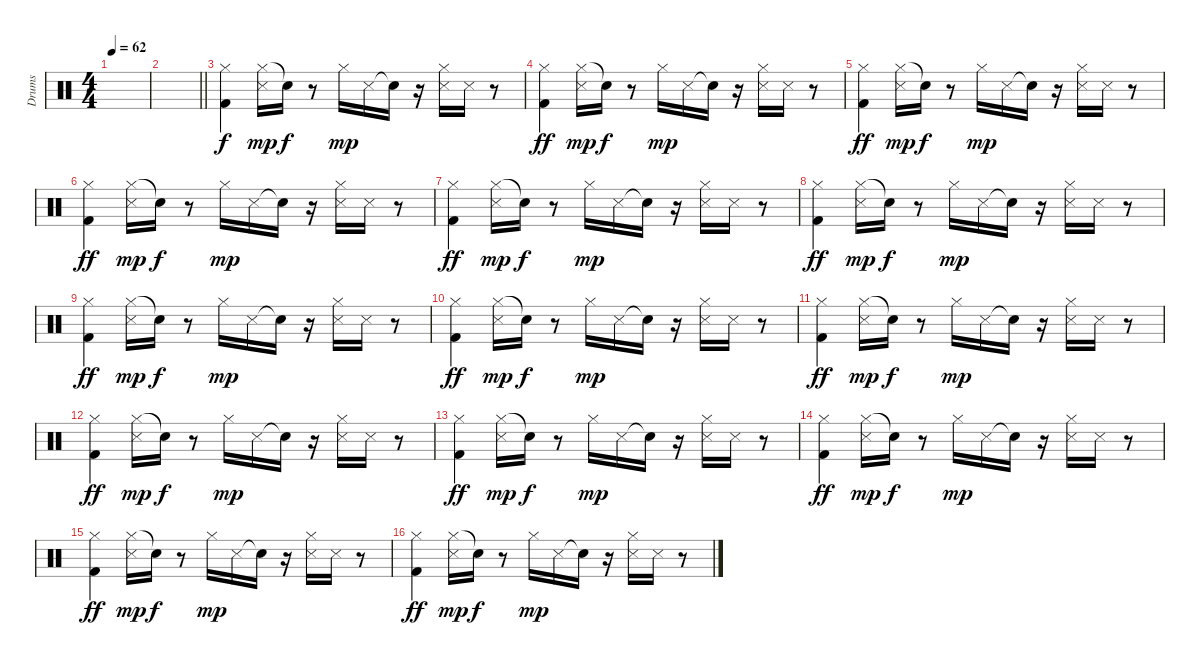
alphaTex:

\track ("Drums" "Drums") {instrument percussion}
\staff {score}
\articulation defaults
\ts (4 4)
\tempo 62
\clef neutral
\ks c
|
\barLineRight lightlight
|
\section ("" "")
("Hi-Hat (closed)" "Kick (hit) 2").4 ("Hi-Hat (closed)" "Snare (side stick) 3").16{dy mp} "Snare (hit)"{t}.16{dy f} r.8 "Hi-Hat (closed)".16{dy mp} "Snare (side stick) 3".16 "Snare (hit)"{t}.16 r.16 ("Hi-Hat (closed)" "Snare (side stick) 3").16 "Snare (side stick) 3".16 r.8 |
("Hi-Hat (closed)" "Kick (hit) 2").4{dy ff} ("Hi-Hat (closed)" "Snare (side stick) 3").16{dy mp} "Snare (hit)"{t}.16{dy f} r.8 "Hi-Hat (closed)".16{dy mp} "Snare (side stick) 3".16 "Snare (hit)"{t}.16 r.16 ("Hi-Hat (closed)" "Snare (side stick) 3").16 "Snare (side stick) 3".16 r.8 |
("Hi-Hat (closed)" "Kick (hit) 2").4{dy ff} ("Hi-Hat (closed)" "Snare (side stick) 3").16{dy mp} "Snare (hit)"{t}.16{dy f} r.8 "Hi-Hat (closed)".16{dy mp} "Snare (side stick) 3".16 "Snare (hit)"{t}.16 r.16 ("Hi-Hat (closed)" "Snare (side stick) 3").16 "Snare (side stick) 3".16 r.8 |
("Hi-Hat (closed)" "Kick (hit) 2").4{dy ff} ("Hi-Hat (closed)" "Snare (side stick) 3").16{dy mp} "Snare (hit)"{t}.16{dy f} r.8 "Hi-Hat (closed)".16{dy mp} "Snare (side stick) 3".16 "Snare (hit)"{t}.16 r.16 ("Hi-Hat (closed)" "Snare (side stick) 3").16 "Snare (side stick) 3".16 r.8 |
("Hi-Hat (closed)" "Kick (hit) 2").4{dy ff} ("Hi-Hat (closed)" "Snare (side stick) 3").16{dy mp} "Snare (hit)"{t}.16{dy f} r.8 "Hi-Hat (closed)".16{dy mp} "Snare (side stick) 3".16 "Snare (hit)"{t}.16 r.16 ("Hi-Hat (closed)" "Snare (side stick) 3").16 "Snare (side stick) 3".16 r.8 |
("Hi-Hat (closed)" "Kick (hit) 2").4{dy ff} ("Hi-Hat (closed)" "Snare (side stick) 3").16{dy mp} "Snare (hit)"{t}.16{dy f} r.8 "Hi-Hat (closed)".16{dy mp} "Snare (side stick) 3".16 "Snare (hit)"{t}.16 r.16 ("Hi-Hat (closed)" "Snare (side stick) 3").16 "Snare (side stick) 3".16 r.8 |
("Hi-Hat (closed)" "Kick (hit) 2").4{dy ff} ("Hi-Hat (closed)" "Snare (side stick) 3").16{dy mp} "Snare (hit)"{t}.16{dy f} r.8 "Hi-Hat (closed)".16{dy mp} "Snare (side stick) 3".16 "Snare (hit)"{t}.16 r.16 ("Hi-Hat (closed)" "Snare (side stick) 3").16 "Snare (side stick) 3".16 r.8 |
("Hi-Hat (closed)" "Kick (hit) 2").4{dy ff} ("Hi-Hat (closed)" "Snare (side stick) 3").16{dy mp} "Snare (hit)"{t}.16{dy f} r.8 "Hi-Hat (closed)".16{dy mp} "Snare (side stick) 3".16 "Snare (hit)"{t}.16 r.16 ("Hi-Hat (closed)" "Snare (side stick) 3").16 "Snare (side stick) 3".16 r.8 |
("Hi-Hat (closed)" "Kick (hit) 2").4{dy ff} ("Hi-Hat (closed)" "Snare (side stick) 3").16{dy mp} "Snare (hit)"{t}.16{dy f} r.8 "Hi-Hat (closed)".16{dy mp} "Snare (side stick) 3".16 "Snare (hit)"{t}.16 r.16 ("Hi-Hat (closed)" "Snare (side stick) 3").16 "Snare (side stick) 3".16 r.8 |
("Hi-Hat (closed)" "Kick (hit) 2").4{dy ff} ("Hi-Hat (closed)" "Snare (side stick) 3").16{dy mp} "Snare (hit)"{t}.16{dy f} r.8 "Hi-Hat (closed)".16{dy mp} "Snare (side stick) 3".16 "Snare (hit)"{t}.16 r.16 ("Hi-Hat (closed)" "Snare (side stick) 3").16 "Snare (side stick) 3".16 r.8 |
("Hi-Hat (closed)" "Kick (hit) 2").4{dy ff} ("Hi-Hat (closed)" "Snare (side stick) 3").16{dy mp} "Snare (hit)"{t}.16{dy f} r.8 "Hi-Hat (closed)".16{dy mp} "Snare (side stick) 3".16 "Snare (hit)"{t}.16 r.16 ("Hi-Hat (closed)" "Snare (side stick) 3").16 "Snare (side stick) 3".16 r.8 |
("Hi-Hat (closed)" "Kick (hit) 2").4{dy ff} ("Hi-Hat (closed)" "Snare (side stick) 3").16{dy mp} "Snare (hit)"{t}.16{dy f} r.8 "Hi-Hat (closed)".16{dy mp} "Snare (side stick) 3".16 "Snare (hit)"{t}.16 r.16 ("Hi-Hat (closed)" "Snare (side stick) 3").16 "Snare (side stick) 3".16 r.8 |
("Hi-Hat (closed)" "Kick (hit) 2").4{dy ff} ("Hi-Hat (closed)" "Snare (side stick) 3").16{dy mp} "Snare (hit)"{t}.16{dy f} r.8 "Hi-Hat (closed)".16{dy mp} "Snare (side stick) 3".16 "Snare (hit)"{t}.16 r.16 ("Hi-Hat (closed)" "Snare (side stick) 3").16 "Snare (side stick) 3".16 r.8 |
("Hi-Hat (closed)" "Kick (hit) 2").4{dy ff} ("Hi-Hat (closed)" "Snare (side stick) 3").16{dy mp} "Snare (hit)"{t}.16{dy f} r.8 "Hi-Hat (closed)".16{dy mp} "Snare (side stick) 3".16 "Snare (hit)"{t}.16 r.16 ("Hi-Hat (closed)" "Snare (side stick) 3").16 "Snare (side stick) 3".16 r.8
